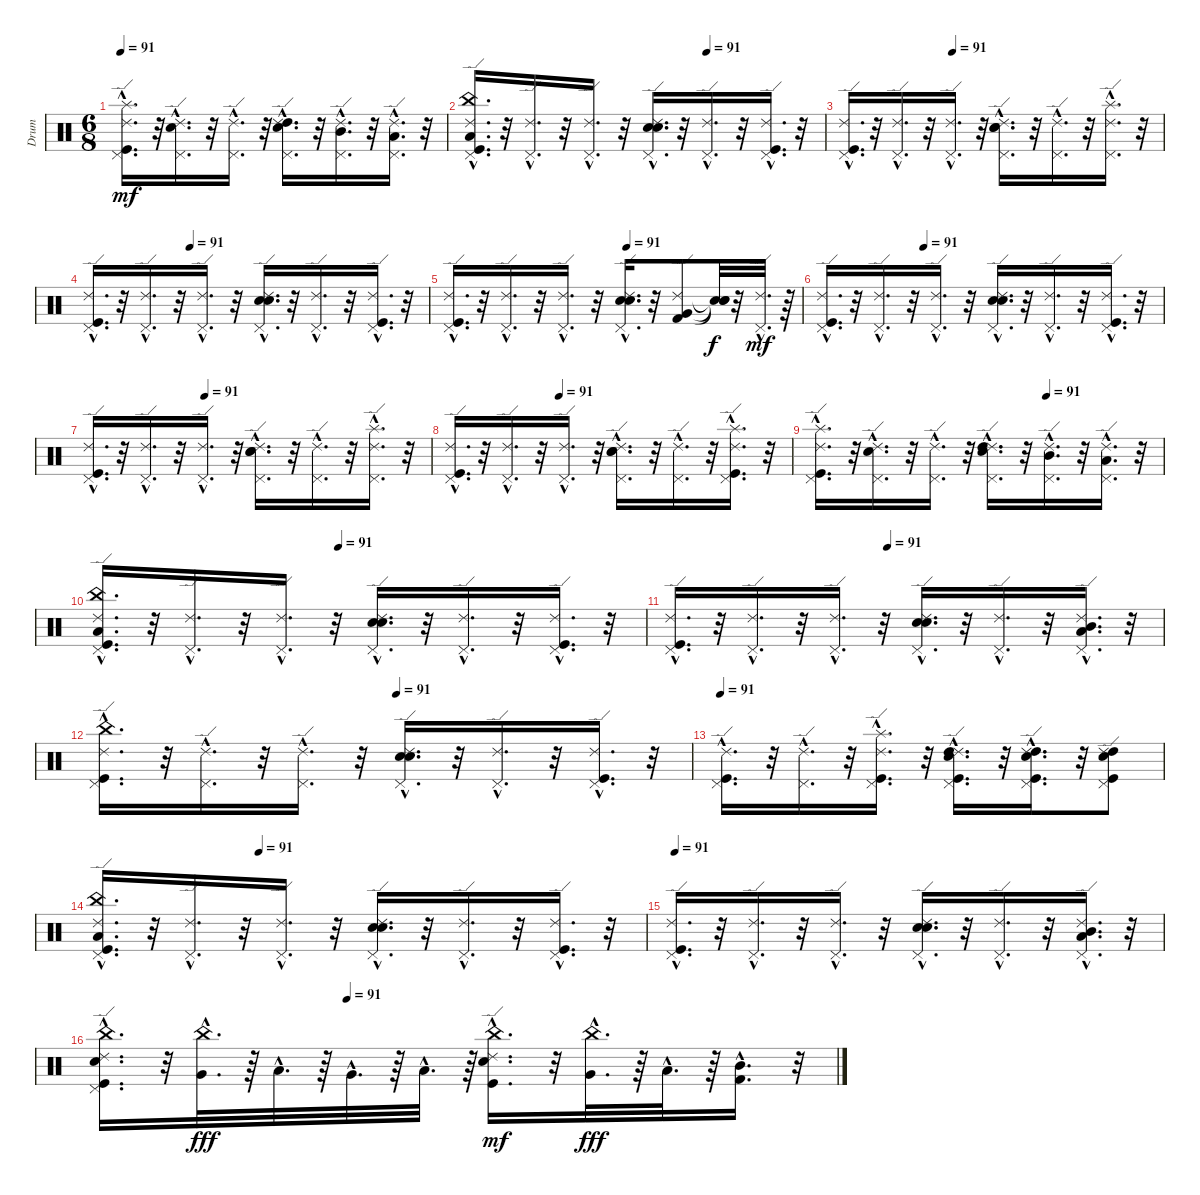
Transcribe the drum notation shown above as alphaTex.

\track ("Drum" "Drum") {instrument percussion}
\staff {score}
\articulation defaults
\ts (6 8)
\tempo 91
\clef neutral
\ks c
("Splash (hit)"{hac} "Ride (edge) 2"{hac} "Pedal Hi-Hat (hit)"{hac} "Kick (hit)"{hac}).16{d dy mf} r.32 ("Ride (edge) 2"{hac} "Pedal Hi-Hat (hit)"{hac} "Snare (hit) 2"{hac}).16{d} r.32 ("Ride (edge) 2"{hac} "Pedal Hi-Hat (hit)"{hac}).16{d} r.32 ("High Tom (hit)"{hac} "Ride (edge) 2"{hac} "Snare (hit) 2"{hac} "Pedal Hi-Hat (hit)"{hac}).16{d} r.32 ("Mid Tom (hit)"{hac} "Ride (edge) 2"{hac} "Pedal Hi-Hat (hit)"{hac}).16{d} r.32 ("Low Tom (hit)"{hac} "Ride (edge) 2"{hac} "Pedal Hi-Hat (hit)"{hac}).16{d} r.32 |
\tempo (91 0.6666666666666666)
("China (hit)"{hac} "Ride (edge) 2"{hac} "Pedal Hi-Hat (hit)"{hac} "Kick (hit)"{hac} "Low Floor Tom (hit)"{hac}).16{d} r.32 ("Ride (edge) 2"{hac} "Pedal Hi-Hat (hit)"{hac}).16{d} r.32 ("Ride (edge) 2"{hac} "Pedal Hi-Hat (hit)"{hac}).16{d} r.32 ("Hand Clap (hit)"{hac} "Ride (edge) 2"{hac} "Snare (hit) 2"{hac} "Pedal Hi-Hat (hit)"{hac}).16{d} r.32 ("Ride (edge) 2"{hac} "Pedal Hi-Hat (hit)"{hac}).16{d} r.32 ("Kick (hit)"{hac} "Ride (edge) 2"{hac} "Pedal Hi-Hat (hit)"{hac}).16{d} r.32 |
\tempo (91 0.3333333333333333)
("Kick (hit)"{hac} "Pedal Hi-Hat (hit)"{hac} "Ride (edge) 2"{hac}).16{d} r.32 ("Pedal Hi-Hat (hit)"{hac} "Ride (edge) 2"{hac}).16{d} r.32 ("Pedal Hi-Hat (hit)"{hac} "Ride (edge) 2"{hac}).16{d} r.32 ("Pedal Hi-Hat (hit)"{hac} "Snare (hit) 2"{hac} "Ride (edge) 2"{hac} "Hand Clap (hit)"{hac}).16{d} r.32 ("Pedal Hi-Hat (hit)"{hac} "Ride (edge) 2"{hac}).16{d} r.32 ("Splash (hit)"{hac} "Pedal Hi-Hat (hit)"{hac} "Ride (edge) 2"{hac}).16{d} r.32 |
\tempo (91 0.2916666666666667)
("Kick (hit)"{hac} "Pedal Hi-Hat (hit)"{hac} "Ride (edge) 2"{hac}).16{d} r.32 ("Pedal Hi-Hat (hit)"{hac} "Ride (edge) 2"{hac}).16{d} r.32 ("Pedal Hi-Hat (hit)"{hac} "Ride (edge) 2"{hac}).16{d} r.32 ("Pedal Hi-Hat (hit)"{hac} "Snare (hit) 2"{hac} "Ride (edge) 2"{hac} "Hand Clap (hit)"{hac}).16{d} r.32 ("Pedal Hi-Hat (hit)"{hac} "Ride (edge) 2"{hac}).16{d} r.32 ("Kick (hit)"{hac} "Pedal Hi-Hat (hit)"{hac} "Ride (edge) 2"{hac}).16{d} r.32 |
\tempo (91 0.5)
("Kick (hit)"{hac} "Pedal Hi-Hat (hit)"{hac} "Ride (edge) 2"{hac}).16{d} r.32 ("Pedal Hi-Hat (hit)"{hac} "Ride (edge) 2"{hac}).16{d} r.32 ("Pedal Hi-Hat (hit)"{hac} "Ride (edge) 2"{hac}).16{d} r.32 ("Snare (hit) 2"{hac} "Pedal Hi-Hat (hit)"{hac} "Hand Clap (hit)"{hac} "Ride (edge) 2"{hac}).16{d} r.32 ("Kick (hit) 2" "Very Low Tom (hit)" "Ride (edge) 2").8 ("Snare (hit)"{t} "Snare (hit)"{t} "Snare (hit)"{t}).32{dy f} r.32 ("Ride (edge) 2"{hac} "Pedal Hi-Hat (hit)"{hac}).32{d dy mf} r.64 |
\tempo (91 0.2916666666666667)
("Pedal Hi-Hat (hit)"{hac} "Ride (edge) 2"{hac} "Kick (hit)"{hac}).16{d} r.32 ("Pedal Hi-Hat (hit)"{hac} "Ride (edge) 2"{hac}).16{d} r.32 ("Ride (edge) 2"{hac} "Pedal Hi-Hat (hit)"{hac}).16{d} r.32 ("Pedal Hi-Hat (hit)"{hac} "Ride (edge) 2"{hac} "Snare (hit) 2"{hac} "Hand Clap (hit)"{hac}).16{d} r.32 ("Ride (edge) 2"{hac} "Pedal Hi-Hat (hit)"{hac}).16{d} r.32 ("Ride (edge) 2"{hac} "Pedal Hi-Hat (hit)"{hac} "Kick (hit)"{hac}).16{d} r.32 |
\tempo (91 0.3333333333333333)
("Kick (hit)"{hac} "Pedal Hi-Hat (hit)"{hac} "Ride (edge) 2"{hac}).16{d} r.32 ("Pedal Hi-Hat (hit)"{hac} "Ride (edge) 2"{hac}).16{d} r.32 ("Pedal Hi-Hat (hit)"{hac} "Ride (edge) 2"{hac}).16{d} r.32 ("Pedal Hi-Hat (hit)"{hac} "Snare (hit) 2"{hac} "Ride (edge) 2"{hac} "Hand Clap (hit)"{hac}).16{d} r.32 ("Pedal Hi-Hat (hit)"{hac} "Ride (edge) 2"{hac}).16{d} r.32 ("Splash (hit)"{hac} "Pedal Hi-Hat (hit)"{hac} "Ride (edge) 2"{hac}).16{d} r.32 |
\tempo (91 0.3125)
("Kick (hit)"{hac} "Pedal Hi-Hat (hit)"{hac} "Ride (edge) 2"{hac}).16{d} r.32 ("Pedal Hi-Hat (hit)"{hac} "Ride (edge) 2"{hac}).16{d} r.32 ("Pedal Hi-Hat (hit)"{hac} "Ride (edge) 2"{hac}).16{d} r.32 ("Pedal Hi-Hat (hit)"{hac} "Snare (hit) 2"{hac} "Ride (edge) 2"{hac} "Hand Clap (hit)"{hac}).16{d} r.32 ("Pedal Hi-Hat (hit)"{hac} "Ride (edge) 2"{hac}).16{d} r.32 ("Pedal Hi-Hat (hit)"{hac} "Ride (edge) 2"{hac} "Splash (hit)"{hac} "Kick (hit)"{hac}).16{d} r.32 |
\tempo (91 0.6666666666666666)
("Kick (hit)"{hac} "Pedal Hi-Hat (hit)"{hac} "Ride (edge) 2"{hac} "Splash (hit)"{hac}).16{d} r.32 ("Snare (hit) 2"{hac} "Pedal Hi-Hat (hit)"{hac} "Ride (edge) 2"{hac}).16{d} r.32 ("Pedal Hi-Hat (hit)"{hac} "Ride (edge) 2"{hac}).16{d} r.32 ("Pedal Hi-Hat (hit)"{hac} "Snare (hit) 2"{hac} "Ride (edge) 2"{hac} "High Tom (hit)"{hac}).16{d} r.32 ("Pedal Hi-Hat (hit)"{hac} "Ride (edge) 2"{hac} "Mid Tom (hit)"{hac}).16{d} r.32 ("Pedal Hi-Hat (hit)"{hac} "Ride (edge) 2"{hac} "Low Tom (hit)"{hac}).16{d} r.32 |
\tempo (91 0.4375)
("China (hit)"{hac} "Ride (edge) 2"{hac} "Pedal Hi-Hat (hit)"{hac} "Kick (hit)"{hac} "Low Floor Tom (hit)"{hac}).16{d} r.32 ("Ride (edge) 2"{hac} "Pedal Hi-Hat (hit)"{hac}).16{d} r.32 ("Ride (edge) 2"{hac} "Pedal Hi-Hat (hit)"{hac}).16{d} r.32 ("Hand Clap (hit)"{hac} "Ride (edge) 2"{hac} "Snare (hit) 2"{hac} "Pedal Hi-Hat (hit)"{hac}).16{d} r.32 ("Ride (edge) 2"{hac} "Pedal Hi-Hat (hit)"{hac}).16{d} r.32 ("Ride (edge) 2"{hac} "Pedal Hi-Hat (hit)"{hac} "Kick (hit)"{hac}).16{d} r.32 |
\tempo (91 0.4375)
("Kick (hit)"{hac} "Pedal Hi-Hat (hit)"{hac} "Ride (edge) 2"{hac}).16{d} r.32 ("Pedal Hi-Hat (hit)"{hac} "Ride (edge) 2"{hac}).16{d} r.32 ("Pedal Hi-Hat (hit)"{hac} "Ride (edge) 2"{hac}).16{d} r.32 ("Pedal Hi-Hat (hit)"{hac} "Snare (hit) 2"{hac} "Ride (edge) 2"{hac} "Hand Clap (hit)"{hac}).16{d} r.32 ("Pedal Hi-Hat (hit)"{hac} "Ride (edge) 2"{hac}).16{d} r.32 ("Pedal Hi-Hat (hit)"{hac} "Ride (edge) 2"{hac} "Mid Tom (hit)"{hac} "Low Floor Tom (hit)"{hac}).16{d} r.32 |
\tempo (91 0.5)
("Kick (hit)"{hac} "Pedal Hi-Hat (hit)"{hac} "Ride (edge) 2"{hac} "China (hit)"{hac}).16{d} r.32 ("Pedal Hi-Hat (hit)"{hac} "Ride (edge) 2"{hac}).16{d} r.32 ("Pedal Hi-Hat (hit)"{hac} "Ride (edge) 2"{hac}).16{d} r.32 ("Pedal Hi-Hat (hit)"{hac} "Snare (hit) 2"{hac} "Ride (edge) 2"{hac} "Hand Clap (hit)"{hac}).16{d} r.32 ("Pedal Hi-Hat (hit)"{hac} "Ride (edge) 2"{hac}).16{d} r.32 ("Pedal Hi-Hat (hit)"{hac} "Ride (edge) 2"{hac} "Kick (hit)"{hac}).16{d} r.32 |
\tempo 91
("Kick (hit)"{hac} "Ride (edge) 2"{hac} "Pedal Hi-Hat (hit)"{hac}).16{d} r.32 ("Ride (edge) 2"{hac} "Pedal Hi-Hat (hit)"{hac}).16{d} r.32 ("Pedal Hi-Hat (hit)"{hac} "Ride (edge) 2"{hac} "Kick (hit)"{hac} "Splash (hit)"{hac}).16{d} r.32 ("Ride (edge) 2"{hac} "High Tom (hit)"{hac} "Snare (hit) 2"{hac} "Pedal Hi-Hat (hit)"{hac} "Kick (hit)"{hac}).16{d} r.32 ("Kick (hit)"{hac} "High Tom (hit)"{hac} "Ride (edge) 2"{hac} "Snare (hit) 2"{hac} "Pedal Hi-Hat (hit)"{hac}).16{d} r.32 ("Snare (hit) 2" "High Tom (hit)" "Pedal Hi-Hat (hit)" "Ride (edge) 2" "Kick (hit)").8 |
\tempo (91 0.2916666666666667)
("Ride (edge) 2"{hac} "China (hit)"{hac} "Pedal Hi-Hat (hit)"{hac} "Kick (hit)"{hac} "Low Floor Tom (hit)"{hac}).16{d} r.32 ("Ride (edge) 2"{hac} "Pedal Hi-Hat (hit)"{hac}).16{d} r.32 ("Pedal Hi-Hat (hit)"{hac} "Ride (edge) 2"{hac}).16{d} r.32 ("Pedal Hi-Hat (hit)"{hac} "Hand Clap (hit)"{hac} "Ride (edge) 2"{hac} "Snare (hit) 2"{hac}).16{d} r.32 ("Pedal Hi-Hat (hit)"{hac} "Ride (edge) 2"{hac}).16{d} r.32 ("Ride (edge) 2"{hac} "Pedal Hi-Hat (hit)"{hac} "Kick (hit)"{hac}).16{d} r.32 |
\tempo 91
("Ride (edge) 2"{hac} "Pedal Hi-Hat (hit)"{hac} "Kick (hit)"{hac}).16{d} r.32 ("Ride (edge) 2"{hac} "Pedal Hi-Hat (hit)"{hac}).16{d} r.32 ("Ride (edge) 2"{hac} "Pedal Hi-Hat (hit)"{hac}).16{d} r.32 ("Hand Clap (hit)"{hac} "Ride (edge) 2"{hac} "Snare (hit) 2"{hac} "Pedal Hi-Hat (hit)"{hac}).16{d} r.32 ("Ride (edge) 2"{hac} "Pedal Hi-Hat (hit)"{hac}).16{d} r.32 ("Low Floor Tom (hit)"{hac} "Mid Tom (hit)"{hac} "Ride (edge) 2"{hac} "Pedal Hi-Hat (hit)"{hac}).16{d} r.32 |
\tempo (91 0.3333333333333333)
("China (hit)"{hac} "Pedal Hi-Hat (hit)"{hac} "Ride (edge) 2"{hac} "Kick (hit)"{hac} "Snare (hit) 2"{hac}).16{d} r.32 ("China (hit)"{hac} "Very Low Tom (hit)"{hac}).32{d dy fff} r.64 "Low Floor Tom (hit)"{hac}.32{d} r.64 "Very Low Tom (hit)"{hac}.32{d} r.64 "Low Floor Tom (hit)"{hac}.32{d} r.64 ("China (hit)"{hac} "Kick (hit)"{hac} "Ride (edge) 2"{hac} "Snare (hit) 2"{hac}).16{d dy mf} r.32 ("China (hit)"{hac} "Very Low Tom (hit)"{hac}).32{d dy fff} r.64 "Low Floor Tom (hit)"{hac}.32{d} r.64 ("Mid Tom (hit)"{hac} "Kick (hit) 2"{hac}).16{d} r.32
